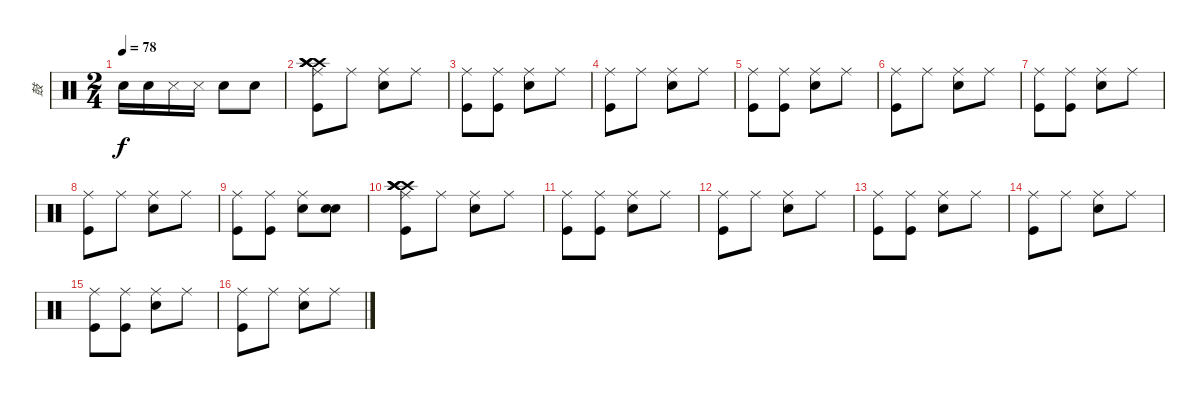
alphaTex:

\track ("鼓" "鼓") {instrument percussion}
\staff {score}
\articulation defaults
\ts (2 4)
\tempo 78
\clef neutral
\ks c "Metronome (bell)".16{dy f} "Metronome (bell)".16 "Metronome (hit)".16 "Metronome (hit)".16 "Snare (hit) 2".8 "Snare (hit) 2".8
|
("Ride (middle)" "Kick (hit)" "Crash high (hit)" "Crash high (hit)" "Crash high (hit)" "Crash high (hit)").8 "Ride (middle)".8 ("Ride (middle)" "Metronome (bell)").8 "Ride (middle)".8 |
("Ride (middle)" "Kick (hit)").8 ("Ride (middle)" "Kick (hit)").8 ("Ride (middle)" "Metronome (bell)").8 "Ride (middle)".8 |
("Ride (middle)" "Kick (hit)").8 "Ride (middle)".8 ("Ride (middle)" "Metronome (bell)").8 "Ride (middle)".8 |
("Ride (middle)" "Kick (hit)").8 ("Ride (middle)" "Kick (hit)").8 ("Ride (middle)" "Metronome (bell)").8 "Ride (middle)".8 |
("Ride (middle)" "Kick (hit)").8 "Ride (middle)".8 ("Ride (middle)" "Metronome (bell)").8 "Ride (middle)".8 |
("Ride (middle)" "Kick (hit)").8 ("Ride (middle)" "Kick (hit)").8 ("Ride (middle)" "Metronome (bell)").8 "Ride (middle)".8 |
("Ride (middle)" "Kick (hit)").8 "Ride (middle)".8 ("Ride (middle)" "Metronome (bell)").8 "Ride (middle)".8 |
("Ride (middle)" "Kick (hit)").8 ("Ride (middle)" "Kick (hit)").8 ("Ride (middle)" "Metronome (bell)").8 ("Snare (hit)" "Metronome (bell)").8 |
("Ride (middle)" "Kick (hit)" "Crash high (hit)" "Crash high (hit)" "Crash high (hit)" "Crash high (hit)").8 "Ride (middle)".8 ("Ride (middle)" "Metronome (bell)").8 "Ride (middle)".8 |
("Ride (middle)" "Kick (hit)").8 ("Ride (middle)" "Kick (hit)").8 ("Ride (middle)" "Metronome (bell)").8 "Ride (middle)".8 |
("Ride (middle)" "Kick (hit)").8 "Ride (middle)".8 ("Ride (middle)" "Metronome (bell)").8 "Ride (middle)".8 |
("Ride (middle)" "Kick (hit)").8 ("Ride (middle)" "Kick (hit)").8 ("Ride (middle)" "Metronome (bell)").8 "Ride (middle)".8 |
("Ride (middle)" "Kick (hit)").8 "Ride (middle)".8 ("Ride (middle)" "Metronome (bell)").8 "Ride (middle)".8 |
("Ride (middle)" "Kick (hit)").8 ("Ride (middle)" "Kick (hit)").8 ("Ride (middle)" "Metronome (bell)").8 "Ride (middle)".8 |
("Ride (middle)" "Kick (hit)").8 "Ride (middle)".8 ("Ride (middle)" "Metronome (bell)").8 "Ride (middle)".8
